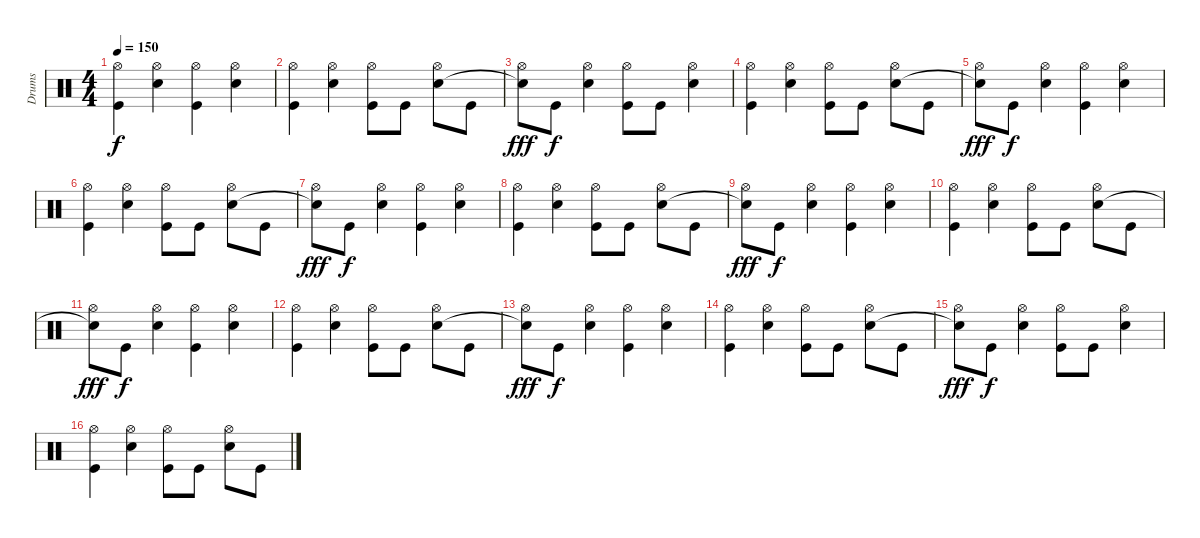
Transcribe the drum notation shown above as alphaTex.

\track ("Drums" "Drums") {instrument percussion}
\staff {score}
\articulation defaults
\ts (4 4)
\tempo 150
\clef neutral
\ks c
("Hi-Hat (open)" "Kick (hit)").4{dy f} ("Hi-Hat (open)" "Snare (hit) 2").4 ("Hi-Hat (open)" "Kick (hit)").4 ("Hi-Hat (open)" "Snare (hit) 2").4 |
("Hi-Hat (open)" "Kick (hit)").4 ("Hi-Hat (open)" "Snare (hit) 2").4 ("Hi-Hat (open)" "Kick (hit)").8 "Kick (hit)".8 ("Hi-Hat (open)" "Snare (hit) 2").8 "Kick (hit)".8 |
("Hi-Hat (open)" "Snare (hit)"{t}).8{dy fff} "Kick (hit)".8{dy f} ("Hi-Hat (open)" "Snare (hit) 2").4 ("Hi-Hat (open)" "Kick (hit)").8 "Kick (hit)".8 ("Hi-Hat (open)" "Snare (hit) 2").4 |
("Hi-Hat (open)" "Kick (hit)").4 ("Hi-Hat (open)" "Snare (hit) 2").4 ("Hi-Hat (open)" "Kick (hit)").8 "Kick (hit)".8 ("Hi-Hat (open)" "Snare (hit) 2").8 "Kick (hit)".8 |
("Hi-Hat (open)" "Snare (hit)"{t}).8{dy fff} "Kick (hit)".8{dy f} ("Hi-Hat (open)" "Snare (hit) 2").4 ("Hi-Hat (open)" "Kick (hit)").4 ("Hi-Hat (open)" "Snare (hit) 2").4 |
("Hi-Hat (open)" "Kick (hit)").4 ("Hi-Hat (open)" "Snare (hit) 2").4 ("Hi-Hat (open)" "Kick (hit)").8 "Kick (hit)".8 ("Hi-Hat (open)" "Snare (hit) 2").8 "Kick (hit)".8 |
("Hi-Hat (open)" "Snare (hit)"{t}).8{dy fff} "Kick (hit)".8{dy f} ("Hi-Hat (open)" "Snare (hit) 2").4 ("Hi-Hat (open)" "Kick (hit)").4 ("Hi-Hat (open)" "Snare (hit) 2").4 |
("Hi-Hat (open)" "Kick (hit)").4 ("Hi-Hat (open)" "Snare (hit) 2").4 ("Hi-Hat (open)" "Kick (hit)").8 "Kick (hit)".8 ("Hi-Hat (open)" "Snare (hit) 2").8 "Kick (hit)".8 |
("Hi-Hat (open)" "Snare (hit)"{t}).8{dy fff} "Kick (hit)".8{dy f} ("Hi-Hat (open)" "Snare (hit) 2").4 ("Hi-Hat (open)" "Kick (hit)").4 ("Hi-Hat (open)" "Snare (hit) 2").4 |
("Hi-Hat (open)" "Kick (hit)").4 ("Hi-Hat (open)" "Snare (hit) 2").4 ("Hi-Hat (open)" "Kick (hit)").8 "Kick (hit)".8 ("Hi-Hat (open)" "Snare (hit) 2").8 "Kick (hit)".8 |
("Hi-Hat (open)" "Snare (hit)"{t}).8{dy fff} "Kick (hit)".8{dy f} ("Hi-Hat (open)" "Snare (hit) 2").4 ("Hi-Hat (open)" "Kick (hit)").4 ("Hi-Hat (open)" "Snare (hit) 2").4 |
("Hi-Hat (open)" "Kick (hit)").4 ("Hi-Hat (open)" "Snare (hit) 2").4 ("Hi-Hat (open)" "Kick (hit)").8 "Kick (hit)".8 ("Hi-Hat (open)" "Snare (hit) 2").8 "Kick (hit)".8 |
("Hi-Hat (open)" "Snare (hit)"{t}).8{dy fff} "Kick (hit)".8{dy f} ("Hi-Hat (open)" "Snare (hit) 2").4 ("Hi-Hat (open)" "Kick (hit)").4 ("Hi-Hat (open)" "Snare (hit) 2").4 |
("Hi-Hat (open)" "Kick (hit)").4 ("Hi-Hat (open)" "Snare (hit) 2").4 ("Hi-Hat (open)" "Kick (hit)").8 "Kick (hit)".8 ("Hi-Hat (open)" "Snare (hit) 2").8 "Kick (hit)".8 |
("Hi-Hat (open)" "Snare (hit)"{t}).8{dy fff} "Kick (hit)".8{dy f} ("Hi-Hat (open)" "Snare (hit) 2").4 ("Hi-Hat (open)" "Kick (hit)").8 "Kick (hit)".8 ("Hi-Hat (open)" "Snare (hit) 2").4 |
("Hi-Hat (open)" "Kick (hit)").4 ("Hi-Hat (open)" "Snare (hit) 2").4 ("Hi-Hat (open)" "Kick (hit)").8 "Kick (hit)".8 ("Hi-Hat (open)" "Snare (hit) 2").8 "Kick (hit)".8
